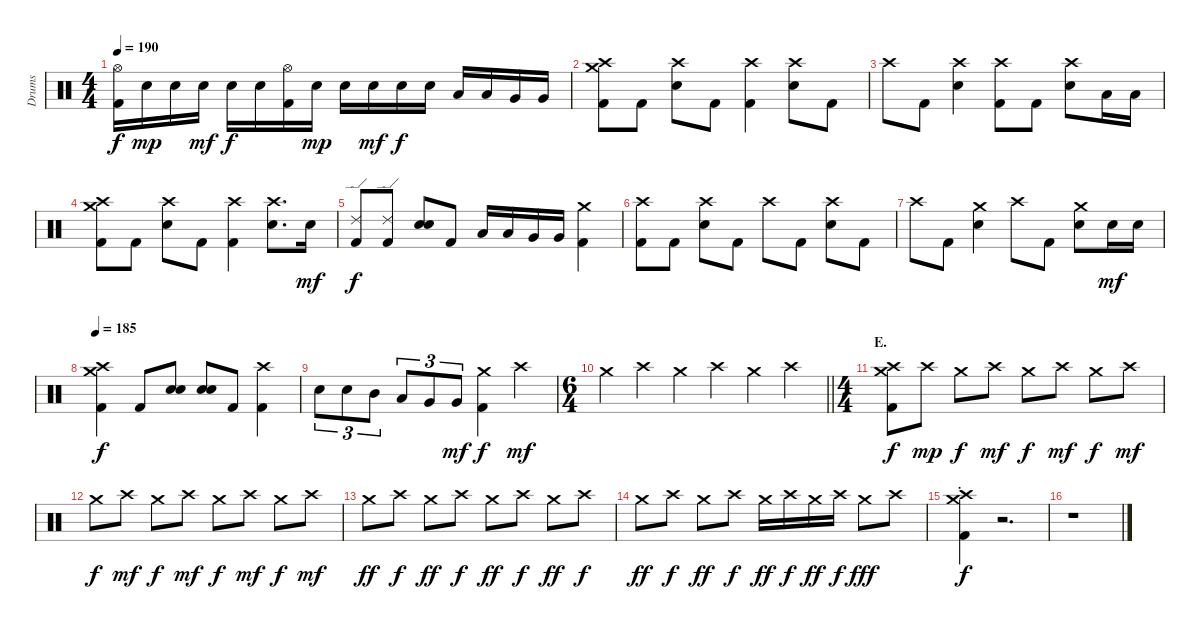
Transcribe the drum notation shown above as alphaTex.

\track ("Drums" "Drums") {instrument percussion}
\staff {score}
\articulation defaults
\ts (4 4)
\tempo 190
\clef neutral
\ks c
("Hi-Hat (open)" "Kick (hit) 2").16{dy f} "Electric Snare (hit)".16{dy mp} "Electric Snare (hit)".16 "Electric Snare (hit)".16{dy mf} "Electric Snare (hit)".16{dy f} "Electric Snare (hit)".16 ("Hi-Hat (open)" "Kick (hit) 2").16 "Electric Snare (hit)".16{dy mp} "Electric Snare (hit)".16 "Electric Snare (hit)".16{dy mf} "Electric Snare (hit)".16{dy f} "Electric Snare (hit)".16 "Low Tom (hit)".16 "Low Tom (hit)".16 "Very Low Tom (hit)".16 "Very Low Tom (hit)".16 |
("Crash medium (hit)" "Crash high (hit)" "Kick (hit) 2").8 "Kick (hit) 2".8 ("Crash high (hit)" "Electric Snare (hit)").8 "Kick (hit) 2".8 ("Crash high (hit)" "Kick (hit) 2").4 ("Crash high (hit)" "Electric Snare (hit)").8 "Kick (hit) 2".8 |
"Crash high (hit)".8 "Kick (hit) 2".8 ("Crash high (hit)" "Electric Snare (hit)").4 ("Crash high (hit)" "Kick (hit) 2").8 "Kick (hit) 2".8 ("Crash high (hit)" "Electric Snare (hit)").8 "Low Tom (hit)".16 "Low Tom (hit)".16 |
("Crash medium (hit)" "Crash high (hit)" "Kick (hit) 2").8 "Kick (hit) 2".8 ("Crash high (hit)" "Electric Snare (hit)").8 "Kick (hit) 2".8 ("Crash high (hit)" "Kick (hit) 2").4 ("Crash high (hit)" "Electric Snare (hit)").8{d} "Electric Snare (hit)".16{dy mf} |
("Ride (edge) 2" "Kick (hit) 2").8{dy f} ("Ride (edge) 2" "Kick (hit) 2").8 ("Electric Snare (hit)" "Electric Snare (hit)").8{bu 120} "Kick (hit) 2".8 "Low Tom (hit)".16 "Low Tom (hit)".16 "Very Low Tom (hit)".16 "Very Low Tom (hit)".16 ("Crash medium (hit)" "Kick (hit) 2").4 |
("Crash high (hit)" "Kick (hit) 2").8 "Kick (hit) 2".8 ("Crash high (hit)" "Electric Snare (hit)").8 "Kick (hit) 2".8 "Crash high (hit)".8 "Kick (hit) 2".8 ("Crash high (hit)" "Electric Snare (hit)").8 "Kick (hit) 2".8 |
"Crash high (hit)".8 "Kick (hit) 2".8 ("Crash medium (hit)" "Electric Snare (hit)").4 "Crash high (hit)".8 "Kick (hit) 2".8 ("Crash medium (hit)" "Electric Snare (hit)").8 "Electric Snare (hit)".16{dy mf} "Electric Snare (hit)".16 |
\tempo 185
("Crash medium (hit)" "Crash high (hit)" "Kick (hit) 2").4{dy f} "Kick (hit) 2".8 ("Electric Snare (hit)" "Electric Snare (hit)").8{bu 120} ("Electric Snare (hit)" "Electric Snare (hit)").8{bu 120} "Kick (hit) 2".8 ("Crash high (hit)" "Kick (hit) 2").4 |
"Electric Snare (hit)".8{tu (3 2)} "Electric Snare (hit)".8{tu (3 2)} "Mid Tom (hit)".8{tu (3 2)} "Low Tom (hit)".8{tu (3 2)} "Very Low Tom (hit)".8{tu (3 2)} "Very Low Tom (hit)".8{tu (3 2) dy mf} ("Crash medium (hit)" "Kick (hit) 2").4{dy f} "Crash high (hit)".4{dy mf} |
\ts (6 4)
\barLineRight lightlight "Crash medium (hit)".4 "Crash high (hit)".4 "Crash medium (hit)".4 "Crash high (hit)".4 "Crash medium (hit)".4 "Crash high (hit)".4
|
\ts (4 4)
\section ("" "E.")
("Crash medium (hit)" "Crash high (hit)" "Kick (hit) 2").8{dy f} "Crash high (hit)".8{dy mp} "Crash medium (hit)".8{dy f} "Crash high (hit)".8{dy mf} "Crash medium (hit)".8{dy f} "Crash high (hit)".8{dy mf} "Crash medium (hit)".8{dy f} "Crash high (hit)".8{dy mf} |
"Crash medium (hit)".8{dy f} "Crash high (hit)".8{dy mf} "Crash medium (hit)".8{dy f} "Crash high (hit)".8{dy mf} "Crash medium (hit)".8{dy f} "Crash high (hit)".8{dy mf} "Crash medium (hit)".8{dy f} "Crash high (hit)".8{dy mf} |
"Crash medium (hit)".8{dy ff} "Crash high (hit)".8{dy f} "Crash medium (hit)".8{dy ff} "Crash high (hit)".8{dy f} "Crash medium (hit)".8{dy ff} "Crash high (hit)".8{dy f} "Crash medium (hit)".8{dy ff} "Crash high (hit)".8{dy f} |
"Crash medium (hit)".8{dy ff} "Crash high (hit)".8{dy f} "Crash medium (hit)".8{dy ff} "Crash high (hit)".8{dy f} "Crash medium (hit)".16{dy ff} "Crash high (hit)".16{dy f} "Crash medium (hit)".16{dy ff} "Crash high (hit)".16{dy f} "Crash medium (hit)".8{dy fff} "Crash high (hit)".8 |
("Crash medium (hit)"{st} "Crash high (hit)" "Kick (hit) 2").4{dy f} r.2{d volume 0} |
r.1
